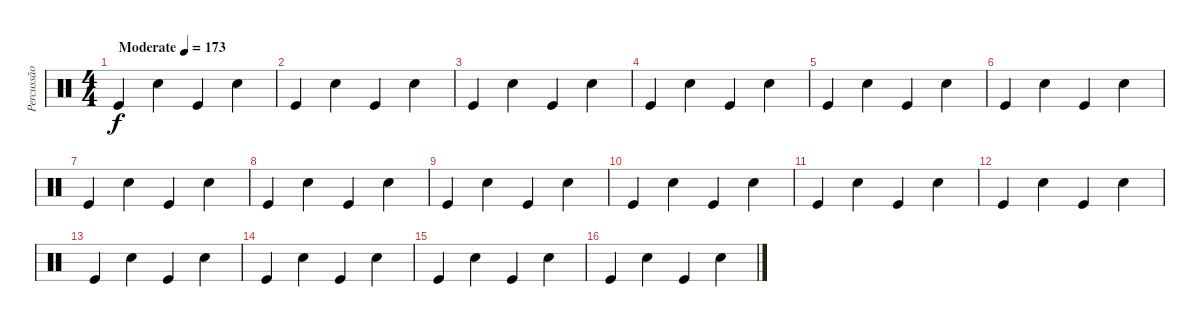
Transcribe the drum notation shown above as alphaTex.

\track ("Percussão" "Percussão") {instrument percussion}
\staff {score}
\articulation defaults
\ts (4 4)
\tempo (173 "Moderate")
\clef neutral
\ks c "Kick (hit)".4{dy f} "Snare (hit) 2".4 "Kick (hit)".4 "Snare (hit) 2".4
|
"Kick (hit)".4 "Snare (hit) 2".4 "Kick (hit)".4 "Snare (hit) 2".4 |
"Kick (hit)".4 "Snare (hit) 2".4 "Kick (hit)".4 "Snare (hit) 2".4 |
"Kick (hit)".4 "Snare (hit) 2".4 "Kick (hit)".4 "Snare (hit) 2".4 |
"Kick (hit)".4 "Snare (hit) 2".4 "Kick (hit)".4 "Snare (hit) 2".4 |
"Kick (hit)".4 "Snare (hit) 2".4 "Kick (hit)".4 "Snare (hit) 2".4 |
"Kick (hit)".4 "Snare (hit) 2".4 "Kick (hit)".4 "Snare (hit) 2".4 |
"Kick (hit)".4 "Snare (hit) 2".4 "Kick (hit)".4 "Snare (hit) 2".4 |
"Kick (hit)".4 "Snare (hit) 2".4 "Kick (hit)".4 "Snare (hit) 2".4 |
"Kick (hit)".4 "Snare (hit) 2".4 "Kick (hit)".4 "Snare (hit) 2".4 |
"Kick (hit)".4 "Snare (hit) 2".4 "Kick (hit)".4 "Snare (hit) 2".4 |
"Kick (hit)".4 "Snare (hit) 2".4 "Kick (hit)".4 "Snare (hit) 2".4 |
"Kick (hit)".4 "Snare (hit) 2".4 "Kick (hit)".4 "Snare (hit) 2".4 |
"Kick (hit)".4 "Snare (hit) 2".4 "Kick (hit)".4 "Snare (hit) 2".4 |
"Kick (hit)".4 "Snare (hit) 2".4 "Kick (hit)".4 "Snare (hit) 2".4 |
"Kick (hit)".4 "Snare (hit) 2".4 "Kick (hit)".4 "Snare (hit) 2".4
